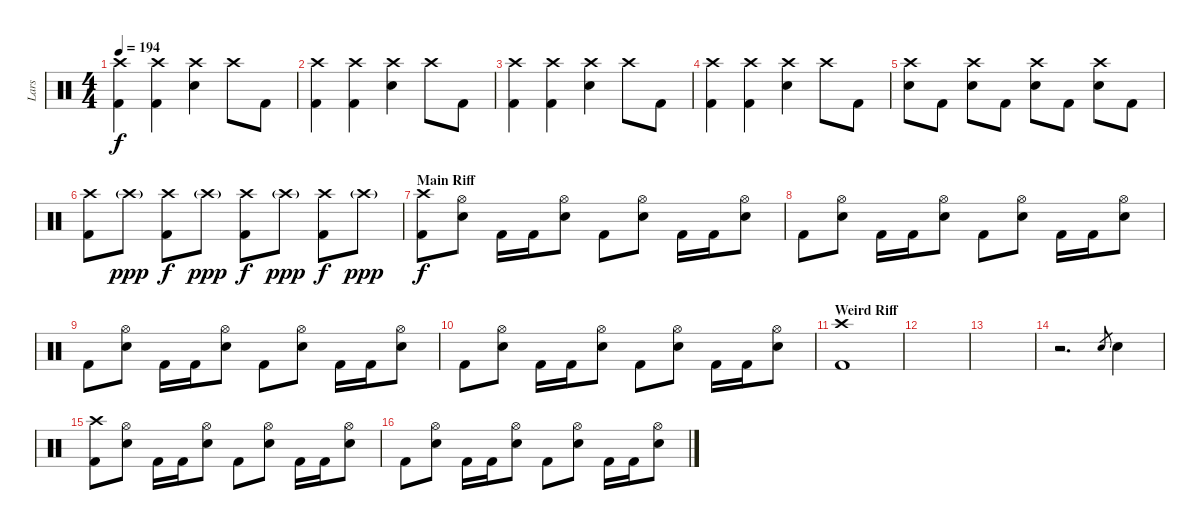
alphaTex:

\track ("Lars" "Lars") {instrument percussion}
\staff {score}
\articulation defaults
\ts (4 4)
\tempo 194
\clef neutral
\ks c
("Crash high (hit)" "Kick (hit) 2").4{dy f} ("Crash high (hit)" "Kick (hit) 2").4 ("Crash high (hit)" "Electric Snare (hit)").4 "Crash high (hit)".8 "Kick (hit) 2".8 |
("Crash high (hit)" "Kick (hit) 2").4 ("Crash high (hit)" "Kick (hit) 2").4 ("Crash high (hit)" "Electric Snare (hit)").4 "Crash high (hit)".8 "Kick (hit) 2".8 |
("Crash high (hit)" "Kick (hit) 2").4 ("Crash high (hit)" "Kick (hit) 2").4 ("Crash high (hit)" "Electric Snare (hit)").4 "Crash high (hit)".8 "Kick (hit) 2".8 |
("Crash high (hit)" "Kick (hit) 2").4 ("Crash high (hit)" "Kick (hit) 2").4 ("Crash high (hit)" "Electric Snare (hit)").4 "Crash high (hit)".8 "Kick (hit) 2".8 |
("Electric Snare (hit)" "Crash high (hit)").8 "Kick (hit) 2".8 ("Electric Snare (hit)" "Crash high (hit)").8 "Kick (hit) 2".8 ("Electric Snare (hit)" "Crash high (hit)").8 "Kick (hit) 2".8 ("Electric Snare (hit)" "Crash high (hit)").8 "Kick (hit) 2".8 |
("Kick (hit) 2" "Crash high (hit)").8 "Crash high (hit)"{g}.8{dy ppp} ("Kick (hit) 2" "Crash high (hit)").8{dy f} "Crash high (hit)"{g}.8{dy ppp} ("Kick (hit) 2" "Crash high (hit)").8{dy f} "Crash high (hit)"{g}.8{dy ppp} ("Kick (hit) 2" "Crash high (hit)").8{dy f} "Crash high (hit)"{g}.8{dy ppp} |
\section ("" "Main Riff")
("Kick (hit) 2" "Crash high (hit)").8{dy f} ("Electric Snare (hit)" "Hi-Hat (open)").8 "Kick (hit) 2".16 "Kick (hit) 2".16 ("Electric Snare (hit)" "Hi-Hat (open)").8 "Kick (hit) 2".8 ("Electric Snare (hit)" "Hi-Hat (open)").8 "Kick (hit) 2".16 "Kick (hit) 2".16 ("Electric Snare (hit)" "Hi-Hat (open)").8 |
"Kick (hit) 2".8 ("Electric Snare (hit)" "Hi-Hat (open)").8 "Kick (hit) 2".16 "Kick (hit) 2".16 ("Electric Snare (hit)" "Hi-Hat (open)").8 "Kick (hit) 2".8 ("Electric Snare (hit)" "Hi-Hat (open)").8 "Kick (hit) 2".16 "Kick (hit) 2".16 ("Electric Snare (hit)" "Hi-Hat (open)").8 |
"Kick (hit) 2".8 ("Electric Snare (hit)" "Hi-Hat (open)").8 "Kick (hit) 2".16 "Kick (hit) 2".16 ("Electric Snare (hit)" "Hi-Hat (open)").8 "Kick (hit) 2".8 ("Electric Snare (hit)" "Hi-Hat (open)").8 "Kick (hit) 2".16 "Kick (hit) 2".16 ("Electric Snare (hit)" "Hi-Hat (open)").8 |
"Kick (hit) 2".8 ("Electric Snare (hit)" "Hi-Hat (open)").8 "Kick (hit) 2".16 "Kick (hit) 2".16 ("Electric Snare (hit)" "Hi-Hat (open)").8 "Kick (hit) 2".8 ("Electric Snare (hit)" "Hi-Hat (open)").8 "Kick (hit) 2".16 "Kick (hit) 2".16 ("Electric Snare (hit)" "Hi-Hat (open)").8 |
\section ("" "Weird Riff")
("Kick (hit) 2" "Crash high (hit)").1 |
|
|
r.2{d} "Electric Snare (hit)".8{gr} "Electric Snare (hit)".4 |
("Kick (hit) 2" "Crash high (hit)").8 ("Electric Snare (hit)" "Hi-Hat (open)").8 "Kick (hit) 2".16 "Kick (hit) 2".16 ("Electric Snare (hit)" "Hi-Hat (open)").8 "Kick (hit) 2".8 ("Electric Snare (hit)" "Hi-Hat (open)").8 "Kick (hit) 2".16 "Kick (hit) 2".16 ("Electric Snare (hit)" "Hi-Hat (open)").8 |
"Kick (hit) 2".8 ("Electric Snare (hit)" "Hi-Hat (open)").8 "Kick (hit) 2".16 "Kick (hit) 2".16 ("Electric Snare (hit)" "Hi-Hat (open)").8 "Kick (hit) 2".8 ("Electric Snare (hit)" "Hi-Hat (open)").8 "Kick (hit) 2".16 "Kick (hit) 2".16 ("Electric Snare (hit)" "Hi-Hat (open)").8
